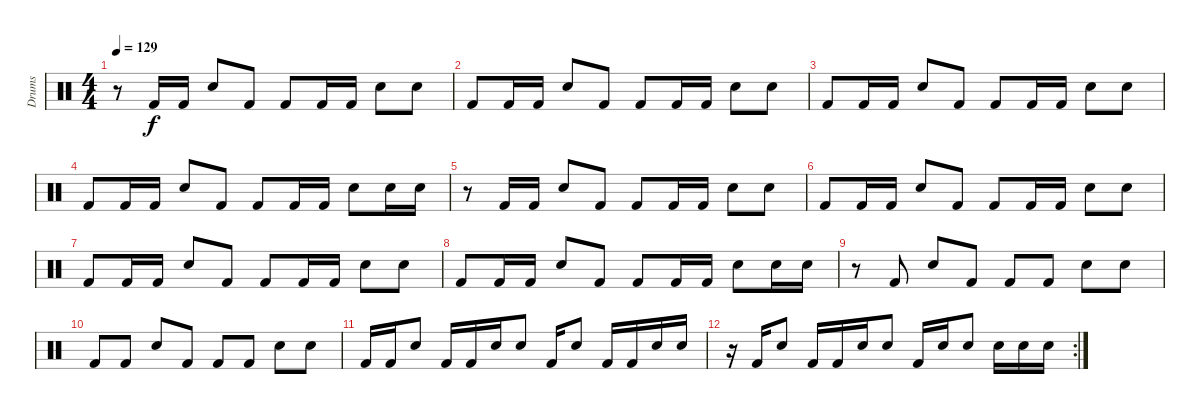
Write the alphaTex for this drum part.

\track ("Drums" "Drums") {instrument percussion}
\staff {score}
\articulation defaults
\ts (4 4)
\tempo 129
\clef neutral
\ks c
r.8{dy f} "Kick (hit) 2".16 "Kick (hit) 2".16 "Snare (hit) 2".8 "Kick (hit) 2".8 "Kick (hit) 2".8 "Kick (hit) 2".16 "Kick (hit) 2".16 "Snare (hit) 2".8 "Snare (hit) 2".8 |
"Kick (hit) 2".8 "Kick (hit) 2".16 "Kick (hit) 2".16 "Snare (hit) 2".8 "Kick (hit) 2".8 "Kick (hit) 2".8 "Kick (hit) 2".16 "Kick (hit) 2".16 "Snare (hit) 2".8 "Snare (hit) 2".8 |
"Kick (hit) 2".8 "Kick (hit) 2".16 "Kick (hit) 2".16 "Snare (hit) 2".8 "Kick (hit) 2".8 "Kick (hit) 2".8 "Kick (hit) 2".16 "Kick (hit) 2".16 "Snare (hit) 2".8 "Snare (hit) 2".8 |
"Kick (hit) 2".8 "Kick (hit) 2".16 "Kick (hit) 2".16 "Snare (hit) 2".8 "Kick (hit) 2".8 "Kick (hit) 2".8 "Kick (hit) 2".16 "Kick (hit) 2".16 "Snare (hit) 2".8 "Snare (hit) 2".16 "Snare (hit) 2".16 |
r.8 "Kick (hit) 2".16 "Kick (hit) 2".16 "Snare (hit) 2".8 "Kick (hit) 2".8 "Kick (hit) 2".8 "Kick (hit) 2".16 "Kick (hit) 2".16 "Snare (hit) 2".8 "Snare (hit) 2".8 |
"Kick (hit) 2".8 "Kick (hit) 2".16 "Kick (hit) 2".16 "Snare (hit) 2".8 "Kick (hit) 2".8 "Kick (hit) 2".8 "Kick (hit) 2".16 "Kick (hit) 2".16 "Snare (hit) 2".8 "Snare (hit) 2".8 |
"Kick (hit) 2".8 "Kick (hit) 2".16 "Kick (hit) 2".16 "Snare (hit) 2".8 "Kick (hit) 2".8 "Kick (hit) 2".8 "Kick (hit) 2".16 "Kick (hit) 2".16 "Snare (hit) 2".8 "Snare (hit) 2".8 |
"Kick (hit) 2".8 "Kick (hit) 2".16 "Kick (hit) 2".16 "Snare (hit) 2".8 "Kick (hit) 2".8 "Kick (hit) 2".8 "Kick (hit) 2".16 "Kick (hit) 2".16 "Snare (hit) 2".8 "Snare (hit) 2".16 "Snare (hit) 2".16 |
r.8 "Kick (hit) 2".8 "Snare (hit) 2".8 "Kick (hit) 2".8 "Kick (hit) 2".8 "Kick (hit) 2".8 "Snare (hit) 2".8 "Snare (hit) 2".8 |
"Kick (hit) 2".8 "Kick (hit) 2".8 "Snare (hit) 2".8 "Kick (hit) 2".8 "Kick (hit) 2".8 "Kick (hit) 2".8 "Snare (hit) 2".8 "Snare (hit) 2".8 |
"Kick (hit) 2".16 "Kick (hit) 2".16 "Snare (hit) 2".8 "Kick (hit) 2".16 "Kick (hit) 2".16 "Snare (hit) 2".16 "Snare (hit) 2".8 "Kick (hit) 2".16 "Snare (hit) 2".8 "Kick (hit) 2".16 "Kick (hit) 2".16 "Snare (hit) 2".16 "Snare (hit) 2".16 |
\rc 2
r.16 "Kick (hit) 2".16 "Snare (hit) 2".8 "Kick (hit) 2".16 "Kick (hit) 2".16 "Snare (hit) 2".16 "Snare (hit) 2".8 "Kick (hit) 2".16 "Snare (hit) 2".16 "Snare (hit) 2".8 "Snare (hit) 2".16 "Snare (hit) 2".16 "Snare (hit) 2".16
